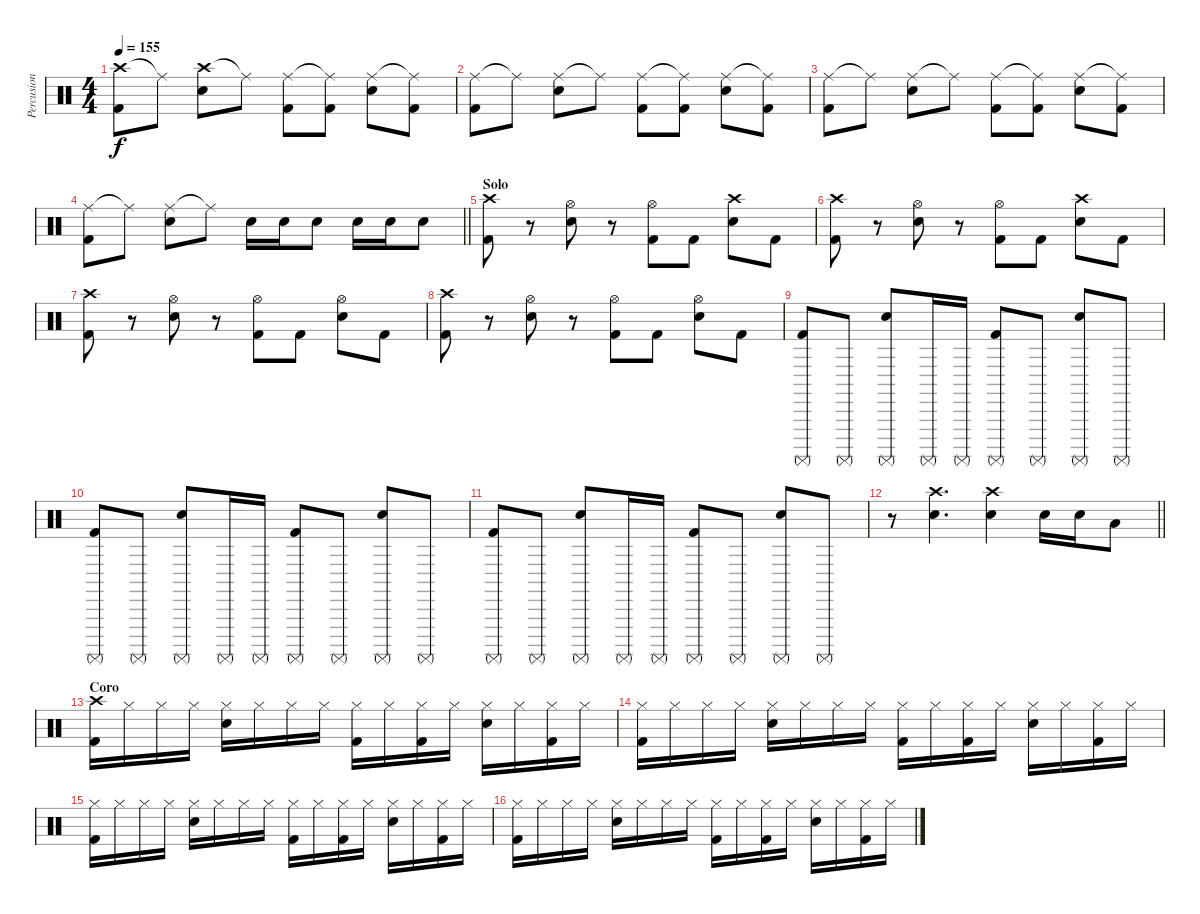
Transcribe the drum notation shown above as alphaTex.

\track ("Percusion" "Percusion") {instrument percussion}
\staff {score}
\articulation defaults
\ts (4 4)
\tempo 155
\clef neutral
\ks c
("Crash high (hit)" "Kick (hit) 2").8{dy f} "Ride (middle)"{t}.8 ("Crash high (hit)" "Electric Snare (hit)").8 "Ride (middle)"{t}.8 ("Ride (middle)" "Kick (hit) 2").8 ("Ride (middle)"{t} "Kick (hit) 2").8 ("Ride (middle)" "Electric Snare (hit)").8 ("Ride (middle)"{t} "Kick (hit) 2").8 |
("Ride (middle)" "Kick (hit) 2").8 "Ride (middle)"{t}.8 ("Ride (middle)" "Electric Snare (hit)").8 "Ride (middle)"{t}.8 ("Ride (middle)" "Kick (hit) 2").8 ("Ride (middle)"{t} "Kick (hit) 2").8 ("Ride (middle)" "Electric Snare (hit)").8 ("Ride (middle)"{t} "Kick (hit) 2").8 |
("Ride (middle)" "Kick (hit) 2").8 "Ride (middle)"{t}.8 ("Ride (middle)" "Electric Snare (hit)").8 "Ride (middle)"{t}.8 ("Ride (middle)" "Kick (hit) 2").8 ("Ride (middle)"{t} "Kick (hit) 2").8 ("Ride (middle)" "Electric Snare (hit)").8 ("Ride (middle)"{t} "Kick (hit) 2").8 |
\barLineRight lightlight
("Ride (middle)" "Kick (hit) 2").8 "Ride (middle)"{t}.8 ("Ride (middle)" "Electric Snare (hit)").8 "Ride (middle)"{t}.8 "Electric Snare (hit)".16 "Electric Snare (hit)".16 "Electric Snare (hit)".8 "Electric Snare (hit)".16 "Electric Snare (hit)".16 "Electric Snare (hit)".8 |
\section ("" "Solo")
("Crash high (hit)" "Kick (hit) 2").8 r.8 ("Hi-Hat (open)" "Electric Snare (hit)").8 r.8 ("Hi-Hat (open)" "Kick (hit) 2").8 "Kick (hit) 2".8 ("Crash high (hit)" "Electric Snare (hit)").8 "Kick (hit) 2".8 |
("Crash high (hit)" "Kick (hit) 2").8 r.8 ("Hi-Hat (open)" "Electric Snare (hit)").8 r.8 ("Hi-Hat (open)" "Kick (hit) 2").8 "Kick (hit) 2".8 ("Crash high (hit)" "Electric Snare (hit)").8 "Kick (hit) 2".8 |
("Crash high (hit)" "Kick (hit) 2").8 r.8 ("Hi-Hat (open)" "Electric Snare (hit)").8 r.8 ("Hi-Hat (open)" "Kick (hit) 2").8 "Kick (hit) 2".8 ("Hi-Hat (open)" "Electric Snare (hit)").8 "Kick (hit) 2".8 |
("Crash high (hit)" "Kick (hit) 2").8 r.8 ("Hi-Hat (open)" "Electric Snare (hit)").8 r.8 ("Hi-Hat (open)" "Kick (hit) 2").8 "Kick (hit) 2".8 ("Hi-Hat (open)" "Electric Snare (hit)").8 "Kick (hit) 2".8 |
("Surdo (mute)" "Kick (hit) 2").8 "Surdo (mute)".8 ("Surdo (mute)" "Electric Snare (hit)").8 "Surdo (mute)".16 "Surdo (mute)".16 ("Surdo (mute)" "Kick (hit) 2").8 "Surdo (mute)".8 ("Surdo (mute)" "Electric Snare (hit)").8 "Surdo (mute)".8 |
("Surdo (mute)" "Kick (hit) 2").8 "Surdo (mute)".8 ("Surdo (mute)" "Electric Snare (hit)").8 "Surdo (mute)".16 "Surdo (mute)".16 ("Surdo (mute)" "Kick (hit) 2").8 "Surdo (mute)".8 ("Surdo (mute)" "Electric Snare (hit)").8 "Surdo (mute)".8 |
("Surdo (mute)" "Kick (hit) 2").8 "Surdo (mute)".8 ("Surdo (mute)" "Electric Snare (hit)").8 "Surdo (mute)".16 "Surdo (mute)".16 ("Surdo (mute)" "Kick (hit) 2").8 "Surdo (mute)".8 ("Surdo (mute)" "Electric Snare (hit)").8 "Surdo (mute)".8 |
\barLineRight lightlight
r.8 ("Electric Snare (hit)" "Crash high (hit)").4{d} ("Electric Snare (hit)" "Crash high (hit)").4 "Electric Snare (hit)".16 "Electric Snare (hit)".16 "Low Tom (hit)".8 |
\section ("" "Coro")
("Crash high (hit)" "Kick (hit) 2").16 "Hi-Hat (closed)".16 "Hi-Hat (closed)".16 "Hi-Hat (closed)".16 ("Hi-Hat (closed)" "Electric Snare (hit)").16 "Hi-Hat (closed)".16 "Hi-Hat (closed)".16 "Hi-Hat (closed)".16 ("Hi-Hat (closed)" "Kick (hit) 2").16 "Hi-Hat (closed)".16 ("Hi-Hat (closed)" "Kick (hit) 2").16 "Hi-Hat (closed)".16 ("Hi-Hat (closed)" "Electric Snare (hit)").16 "Hi-Hat (closed)".16 ("Hi-Hat (closed)" "Kick (hit) 2").16 "Hi-Hat (closed)".16 |
("Hi-Hat (closed)" "Kick (hit) 2").16 "Hi-Hat (closed)".16 "Hi-Hat (closed)".16 "Hi-Hat (closed)".16 ("Hi-Hat (closed)" "Electric Snare (hit)").16 "Hi-Hat (closed)".16 "Hi-Hat (closed)".16 "Hi-Hat (closed)".16 ("Hi-Hat (closed)" "Kick (hit) 2").16 "Hi-Hat (closed)".16 ("Hi-Hat (closed)" "Kick (hit) 2").16 "Hi-Hat (closed)".16 ("Hi-Hat (closed)" "Electric Snare (hit)").16 "Hi-Hat (closed)".16 ("Hi-Hat (closed)" "Kick (hit) 2").16 "Hi-Hat (closed)".16 |
("Hi-Hat (closed)" "Kick (hit) 2").16 "Hi-Hat (closed)".16 "Hi-Hat (closed)".16 "Hi-Hat (closed)".16 ("Hi-Hat (closed)" "Electric Snare (hit)").16 "Hi-Hat (closed)".16 "Hi-Hat (closed)".16 "Hi-Hat (closed)".16 ("Hi-Hat (closed)" "Kick (hit) 2").16 "Hi-Hat (closed)".16 ("Hi-Hat (closed)" "Kick (hit) 2").16 "Hi-Hat (closed)".16 ("Hi-Hat (closed)" "Electric Snare (hit)").16 "Hi-Hat (closed)".16 ("Hi-Hat (closed)" "Kick (hit) 2").16 "Hi-Hat (closed)".16 |
("Hi-Hat (closed)" "Kick (hit) 2").16 "Hi-Hat (closed)".16 "Hi-Hat (closed)".16 "Hi-Hat (closed)".16 ("Hi-Hat (closed)" "Electric Snare (hit)").16 "Hi-Hat (closed)".16 "Hi-Hat (closed)".16 "Hi-Hat (closed)".16 ("Hi-Hat (closed)" "Kick (hit) 2").16 "Hi-Hat (closed)".16 ("Hi-Hat (closed)" "Kick (hit) 2").16 "Hi-Hat (closed)".16 ("Hi-Hat (closed)" "Electric Snare (hit)").16 "Hi-Hat (closed)".16 ("Hi-Hat (closed)" "Kick (hit) 2").16 "Hi-Hat (closed)".16
